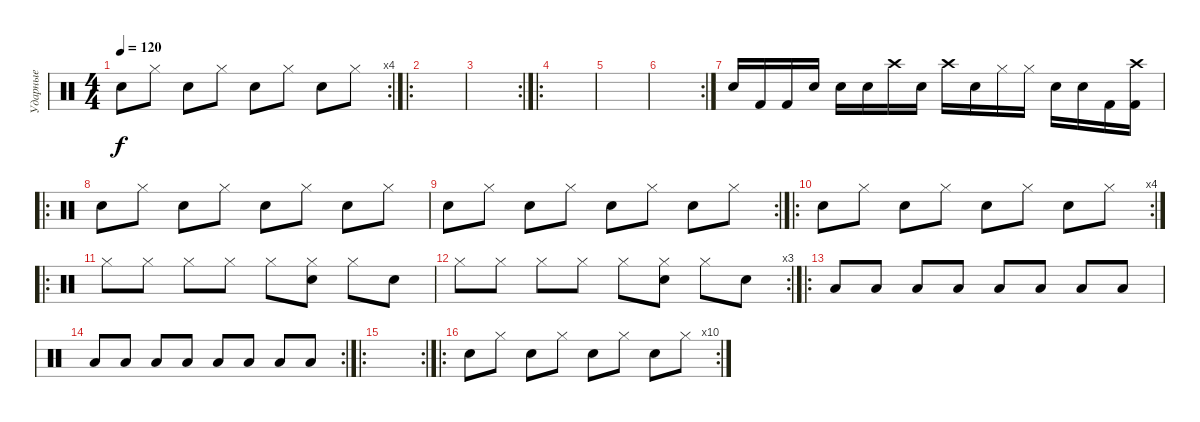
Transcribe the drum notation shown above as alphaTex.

\track ("Ударные" "Ударные") {instrument percussion}
\staff {score}
\articulation defaults
\rc 4
\ts (4 4)
\tempo 120
\clef neutral
\ks c "Snare (hit) 2".8{dy f} "Hi-Hat (closed)".8 "Snare (hit) 2".8 "Hi-Hat (closed)".8 "Snare (hit) 2".8 "Hi-Hat (closed)".8 "Snare (hit) 2".8 "Hi-Hat (closed)".8
|
\ro
|
\rc 2
|
\ro
|
|
\rc 2
|
"Snare (hit) 2".16 "Kick (hit) 2".16 "Kick (hit) 2".16 "Snare (hit) 2".16 "Snare (hit) 2".16 "Snare (hit) 2".16 "Crash high (hit)".16 "Snare (hit) 2".16 "Crash high (hit)".16 "Snare (hit) 2".16 "Hi-Hat (closed)".16 "Hi-Hat (closed)".16 "Snare (hit) 2".16 "Snare (hit) 2".16 "Kick (hit) 2".16 ("Kick (hit) 2" "Crash high (hit)").16 |
\ro "Snare (hit) 2".8 "Hi-Hat (closed)".8 "Snare (hit) 2".8 "Hi-Hat (closed)".8 "Snare (hit) 2".8 "Hi-Hat (closed)".8 "Snare (hit) 2".8 "Hi-Hat (closed)".8
|
\rc 2 "Snare (hit) 2".8 "Hi-Hat (closed)".8 "Snare (hit) 2".8 "Hi-Hat (closed)".8 "Snare (hit) 2".8 "Hi-Hat (closed)".8 "Snare (hit) 2".8 "Hi-Hat (closed)".8
|
\ro
\rc 4 "Snare (hit) 2".8 "Hi-Hat (closed)".8 "Snare (hit) 2".8 "Hi-Hat (closed)".8 "Snare (hit) 2".8 "Hi-Hat (closed)".8 "Snare (hit) 2".8 "Hi-Hat (closed)".8
|
\ro "Hi-Hat (closed)".8 "Hi-Hat (closed)".8 "Hi-Hat (closed)".8 "Hi-Hat (closed)".8 "Hi-Hat (closed)".8
("Hi-Hat (closed)" "Snare (hit) 2").8 "Hi-Hat (closed)".8 "Snare (hit) 2".8 |
\rc 3 "Hi-Hat (closed)".8 "Hi-Hat (closed)".8 "Hi-Hat (closed)".8 "Hi-Hat (closed)".8 "Hi-Hat (closed)".8
("Hi-Hat (closed)" "Snare (hit) 2").8 "Hi-Hat (closed)".8 "Snare (hit) 2".8 |
\ro "Low Floor Tom (hit)".8 "Low Floor Tom (hit)".8 "Low Floor Tom (hit)".8 "Low Floor Tom (hit)".8 "Low Floor Tom (hit)".8 "Low Floor Tom (hit)".8 "Low Floor Tom (hit)".8 "Low Floor Tom (hit)".8
|
\rc 2 "Low Floor Tom (hit)".8 "Low Floor Tom (hit)".8 "Low Floor Tom (hit)".8 "Low Floor Tom (hit)".8 "Low Floor Tom (hit)".8 "Low Floor Tom (hit)".8 "Low Floor Tom (hit)".8 "Low Floor Tom (hit)".8
|
\ro
\rc 2
|
\ro
\rc 10 "Snare (hit) 2".8 "Hi-Hat (closed)".8 "Snare (hit) 2".8 "Hi-Hat (closed)".8 "Snare (hit) 2".8 "Hi-Hat (closed)".8 "Snare (hit) 2".8 "Hi-Hat (closed)".8
